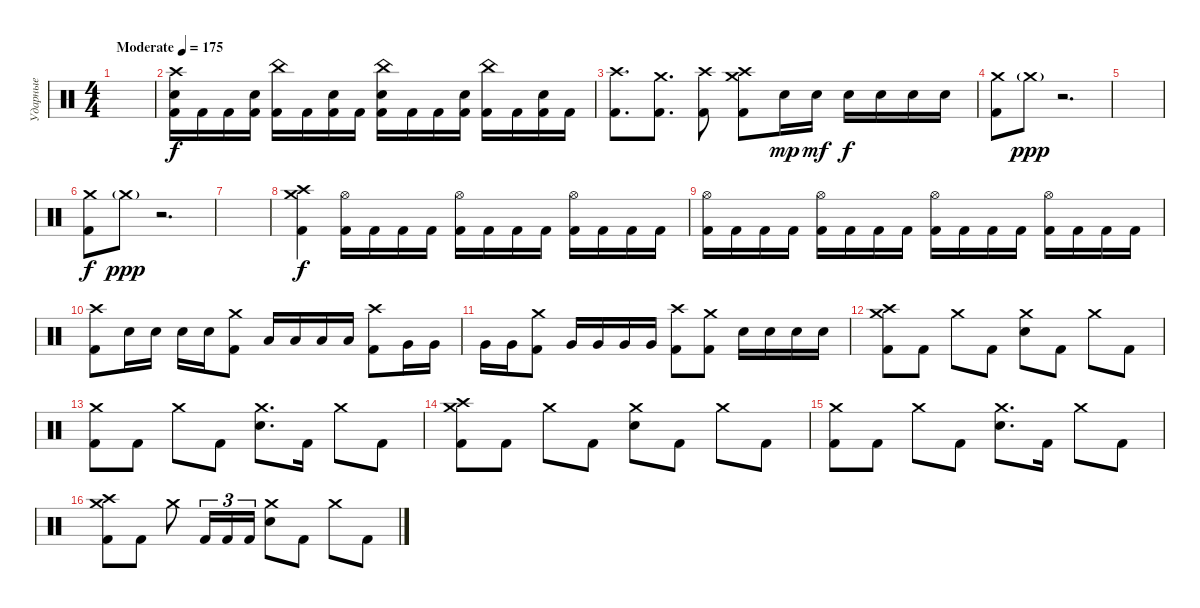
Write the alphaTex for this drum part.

\track ("Ударные" "Ударные") {instrument percussion}
\staff {score}
\articulation defaults
\ts (4 4)
\tempo (175 "Moderate")
\clef neutral
\ks c
|
("Crash high (hit)" "Electric Snare (hit)" "Kick (hit) 2").16 "Kick (hit) 2".16 "Kick (hit) 2".16 ("Electric Snare (hit)" "Kick (hit) 2").16 ("China (hit)" "Kick (hit) 2").16 "Kick (hit) 2".16 ("Electric Snare (hit)" "Kick (hit) 2").16 "Kick (hit) 2".16 ("China (hit)" "Electric Snare (hit)" "Kick (hit) 2").16 "Kick (hit) 2".16 "Kick (hit) 2".16 ("Electric Snare (hit)" "Kick (hit) 2").16 ("China (hit)" "Kick (hit) 2").16 "Kick (hit) 2".16 ("Electric Snare (hit)" "Kick (hit) 2").16 "Kick (hit) 2".16 |
("Crash high (hit)" "Kick (hit) 2").8{d} ("Crash medium (hit)" "Kick (hit) 2").8{d} ("Crash high (hit)" "Kick (hit) 2").8 ("Crash high (hit)" "Crash medium (hit)" "Kick (hit) 2").8 "Electric Snare (hit)".16{dy mp} "Electric Snare (hit)".16{dy mf} "Electric Snare (hit)".16{dy f} "Electric Snare (hit)".16 "Electric Snare (hit)".16 "Electric Snare (hit)".16 |
("Crash medium (hit)" "Kick (hit) 2").8 "Crash medium (hit)"{g}.8{dy ppp} r.2{d} |
|
("Crash medium (hit)" "Kick (hit) 2").8{dy f} "Crash medium (hit)"{g}.8{dy ppp} r.2{d} |
|
("Crash high (hit)" "Crash medium (hit)" "Kick (hit) 2").4{dy f} ("Hi-Hat (open)" "Kick (hit) 2").16 "Kick (hit) 2".16 "Kick (hit) 2".16 "Kick (hit) 2".16 ("Hi-Hat (open)" "Kick (hit) 2").16 "Kick (hit) 2".16 "Kick (hit) 2".16 "Kick (hit) 2".16 ("Hi-Hat (open)" "Kick (hit) 2").16 "Kick (hit) 2".16 "Kick (hit) 2".16 "Kick (hit) 2".16 |
("Hi-Hat (open)" "Kick (hit) 2").16 "Kick (hit) 2".16 "Kick (hit) 2".16 "Kick (hit) 2".16 ("Hi-Hat (open)" "Kick (hit) 2").16 "Kick (hit) 2".16 "Kick (hit) 2".16 "Kick (hit) 2".16 ("Hi-Hat (open)" "Kick (hit) 2").16 "Kick (hit) 2".16 "Kick (hit) 2".16 "Kick (hit) 2".16 ("Hi-Hat (open)" "Kick (hit) 2").16 "Kick (hit) 2".16 "Kick (hit) 2".16 "Kick (hit) 2".16 |
("Crash high (hit)" "Kick (hit) 2").8 "Electric Snare (hit)".16 "Electric Snare (hit)".16 "Electric Snare (hit)".16 "Electric Snare (hit)".16 ("Crash medium (hit)" "Kick (hit) 2").8 "Low Tom (hit)".16 "Low Tom (hit)".16 "Low Tom (hit)".16 "Low Tom (hit)".16 ("Crash high (hit)" "Kick (hit) 2").8 "Very Low Tom (hit)".16 "Very Low Tom (hit)".16 |
"Very Low Tom (hit)".16 "Very Low Tom (hit)".16 ("Crash medium (hit)" "Kick (hit) 2").8 "Very Low Tom (hit)".16 "Very Low Tom (hit)".16 "Very Low Tom (hit)".16 "Very Low Tom (hit)".16 ("Crash high (hit)" "Kick (hit) 2").8 ("Crash medium (hit)" "Kick (hit) 2").8 "Electric Snare (hit)".16 "Electric Snare (hit)".16 "Electric Snare (hit)".16 "Electric Snare (hit)".16 |
("Crash high (hit)" "Crash medium (hit)" "Kick (hit) 2").8 "Kick (hit) 2".8 "Crash medium (hit)".8 "Kick (hit) 2".8 ("Crash medium (hit)" "Electric Snare (hit)").8 "Kick (hit) 2".8 "Crash medium (hit)".8 "Kick (hit) 2".8 |
("Crash medium (hit)" "Kick (hit) 2").8 "Kick (hit) 2".8 "Crash medium (hit)".8 "Kick (hit) 2".8 ("Crash medium (hit)" "Electric Snare (hit)").8{d} "Kick (hit) 2".16 "Crash medium (hit)".8 "Kick (hit) 2".8 |
("Crash high (hit)" "Crash medium (hit)" "Kick (hit) 2").8 "Kick (hit) 2".8 "Crash medium (hit)".8 "Kick (hit) 2".8 ("Crash medium (hit)" "Electric Snare (hit)").8 "Kick (hit) 2".8 "Crash medium (hit)".8 "Kick (hit) 2".8 |
("Crash medium (hit)" "Kick (hit) 2").8 "Kick (hit) 2".8 "Crash medium (hit)".8 "Kick (hit) 2".8 ("Crash medium (hit)" "Electric Snare (hit)").8{d} "Kick (hit) 2".16 "Crash medium (hit)".8 "Kick (hit) 2".8 |
("Crash high (hit)" "Crash medium (hit)" "Kick (hit) 2").8 "Kick (hit) 2".8 "Crash medium (hit)".8 "Kick (hit) 2".16{tu (3 2)} "Kick (hit) 2".16{tu (3 2)} "Kick (hit) 2".16{tu (3 2)} ("Crash medium (hit)" "Electric Snare (hit)").8 "Kick (hit) 2".8 "Crash medium (hit)".8 "Kick (hit) 2".8
